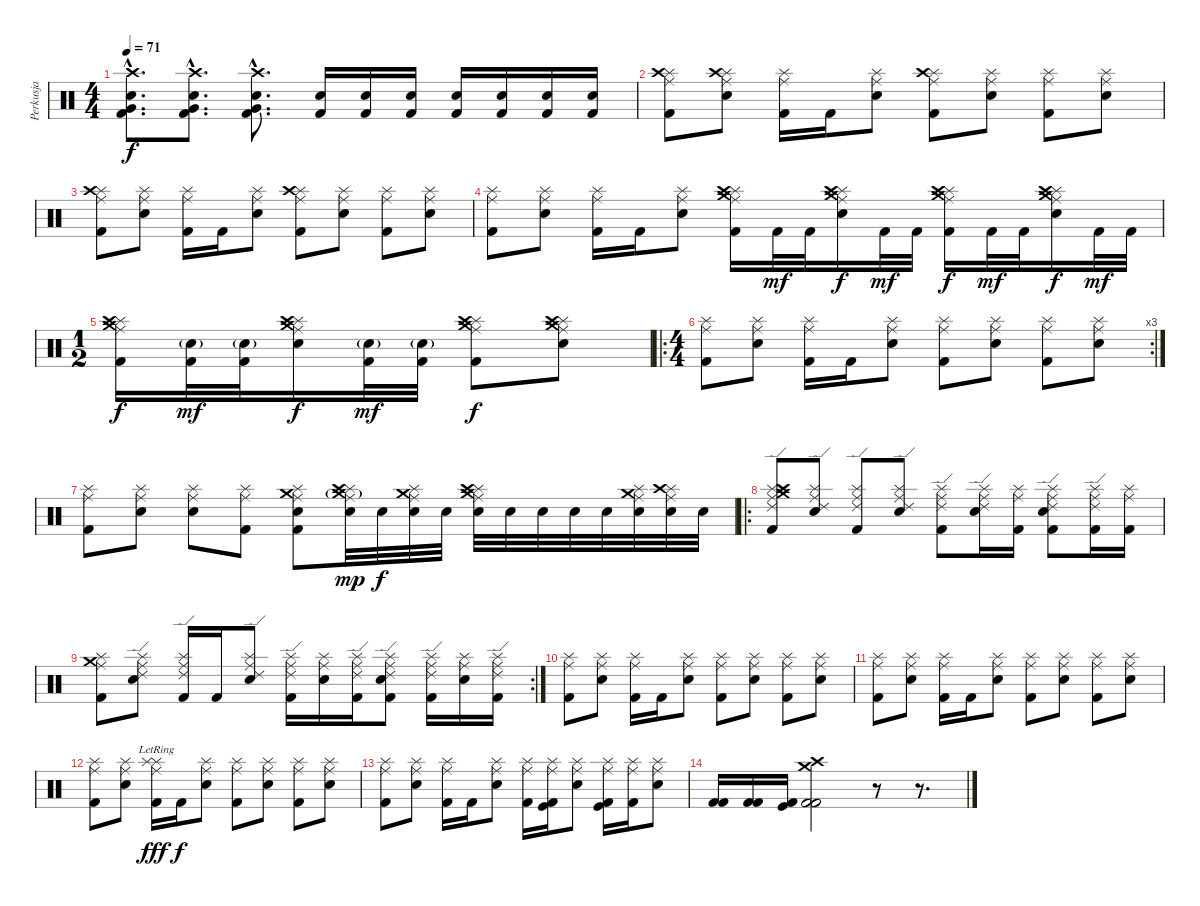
\track ("Perkusja" "Perkusja") {instrument percussion}
\staff {score}
\articulation defaults
\ts (4 4)
\tempo 71
\clef neutral
\ks c
("Electric Snare (hit)"{hac} "Kick (hit) 2"{hac} "Very Low Tom (hit)"{hac} "Crash high (hit)"{hac}).8{d dy f} ("Electric Snare (hit)"{hac} "Kick (hit) 2"{hac} "Very Low Tom (hit)"{hac} "Crash high (hit)"{hac}).8{d} ("Electric Snare (hit)"{hac} "Kick (hit) 2"{hac} "Very Low Tom (hit)"{hac} "Crash high (hit)"{hac}).8{d} ("Kick (hit) 2" "Electric Snare (hit)").16 ("Kick (hit) 2" "Electric Snare (hit)").16 ("Kick (hit) 2" "Electric Snare (hit)").16 ("Kick (hit) 2" "Electric Snare (hit)").16 ("Kick (hit) 2" "Electric Snare (hit)").16 ("Kick (hit) 2" "Electric Snare (hit)").16 ("Kick (hit) 2" "Electric Snare (hit)").16 |
("Ride (middle)" "Splash (hit)" "Crash high (hit)" "Kick (hit) 2").8 ("Ride (middle)" "Splash (hit)" "Crash high (hit)" "Electric Snare (hit)").8 ("Ride (middle)" "Splash (hit)" "Kick (hit) 2").16 "Kick (hit) 2".16 ("Ride (middle)" "Splash (hit)" "Electric Snare (hit)").8 ("Ride (middle)" "Splash (hit)" "Crash high (hit)" "Kick (hit) 2").8 ("Ride (middle)" "Splash (hit)" "Electric Snare (hit)").8 ("Ride (middle)" "Splash (hit)" "Kick (hit) 2").8 ("Ride (middle)" "Splash (hit)" "Electric Snare (hit)").8 |
("Ride (middle)" "Splash (hit)" "Crash high (hit)" "Kick (hit) 2").8 ("Ride (middle)" "Splash (hit)" "Electric Snare (hit)").8 ("Ride (middle)" "Splash (hit)" "Kick (hit) 2").16 "Kick (hit) 2".16 ("Ride (middle)" "Splash (hit)" "Electric Snare (hit)").8 ("Ride (middle)" "Splash (hit)" "Crash high (hit)" "Kick (hit) 2").8 ("Ride (middle)" "Splash (hit)" "Electric Snare (hit)").8 ("Ride (middle)" "Splash (hit)" "Kick (hit) 2").8 ("Ride (middle)" "Splash (hit)" "Electric Snare (hit)").8 |
("Ride (middle)" "Splash (hit)" "Kick (hit) 2").8 ("Ride (middle)" "Splash (hit)" "Electric Snare (hit)").8 ("Ride (middle)" "Splash (hit)" "Kick (hit) 2").16 "Kick (hit) 2".16 ("Ride (middle)" "Splash (hit)" "Electric Snare (hit)").8 ("Ride (middle)" "Splash (hit)" "Crash medium (hit)" "Crash high (hit)" "Kick (hit) 2").16 "Kick (hit) 2".32{dy mf} "Kick (hit) 2".32 ("Ride (middle)" "Splash (hit)" "Crash medium (hit)" "Crash high (hit)" "Electric Snare (hit)").16{dy f} "Kick (hit) 2".32{dy mf} "Kick (hit) 2".32 ("Ride (middle)" "Splash (hit)" "Crash medium (hit)" "Crash high (hit)" "Kick (hit) 2").16{dy f} "Kick (hit) 2".32{dy mf} "Kick (hit) 2".32 ("Ride (middle)" "Splash (hit)" "Crash medium (hit)" "Crash high (hit)" "Electric Snare (hit)").16{dy f} "Kick (hit) 2".32{dy mf} "Kick (hit) 2".32 |
\ts (1 2)
("Ride (middle)" "Splash (hit)" "Crash medium (hit)" "Crash high (hit)" "Kick (hit) 2").16{dy f} ("Electric Snare (hit)"{g} "Kick (hit) 2").32{dy mf} ("Electric Snare (hit)"{g} "Kick (hit) 2").32 ("Ride (middle)" "Splash (hit)" "Crash medium (hit)" "Crash high (hit)" "Electric Snare (hit)").16{dy f} ("Electric Snare (hit)"{g} "Kick (hit) 2").32{dy mf} ("Electric Snare (hit)"{g} "Kick (hit) 2").32 ("Ride (middle)" "Splash (hit)" "Crash medium (hit)" "Crash high (hit)" "Kick (hit) 2").8{dy f} ("Ride (middle)" "Splash (hit)" "Crash medium (hit)" "Crash high (hit)" "Electric Snare (hit)").8 |
\ro
\rc 3
\ts (4 4)
("Ride (middle)" "Splash (hit)" "Kick (hit) 2").8 ("Ride (middle)" "Splash (hit)" "Electric Snare (hit)").8 ("Ride (middle)" "Splash (hit)" "Kick (hit) 2").16 "Kick (hit) 2".16 ("Ride (middle)" "Splash (hit)" "Electric Snare (hit)").8 ("Ride (middle)" "Splash (hit)" "Kick (hit) 2").8 ("Ride (middle)" "Splash (hit)" "Electric Snare (hit)").8 ("Ride (middle)" "Splash (hit)" "Kick (hit) 2").8 ("Ride (middle)" "Splash (hit)" "Electric Snare (hit)").8 |
("Ride (middle)" "Splash (hit)" "Kick (hit) 2").8 ("Ride (middle)" "Splash (hit)" "Electric Snare (hit)").8 ("Ride (middle)" "Splash (hit)" "Electric Snare (hit)").8 ("Ride (middle)" "Splash (hit)" "Kick (hit) 2").8 ("Ride (middle)" "Splash (hit)" "Crash medium (hit)" "Electric Snare (hit)" "Kick (hit) 2").8 ("Ride (middle)" "Splash (hit)" "Crash medium (hit)"{g} "Crash high (hit)" "Electric Snare (hit)").32{dy mp} "Electric Snare (hit)".32{dy f} ("Ride (middle)" "Splash (hit)" "Crash medium (hit)" "Electric Snare (hit)").32 "Electric Snare (hit)".32 ("Ride (middle)" "Splash (hit)" "Crash medium (hit)" "Crash high (hit)" "Electric Snare (hit)").32 "Electric Snare (hit)".32 "Electric Snare (hit)".32 "Electric Snare (hit)".32 "Electric Snare (hit)".32 ("Ride (middle)" "Splash (hit)" "Crash medium (hit)" "Electric Snare (hit)").32 ("Ride (middle)" "Splash (hit)" "Crash high (hit)" "Electric Snare (hit)").32 "Electric Snare (hit)".32 |
\ro
("Ride (middle)" "Splash (hit)" "Ride (edge) 2" "Crash medium (hit)" "Kick (hit) 2" "Crash high (hit)").8 ("Ride (middle)" "Splash (hit)" "Ride (edge) 2" "Electric Snare (hit)").8 ("Ride (middle)" "Splash (hit)" "Ride (edge) 2" "Kick (hit) 2").8 ("Ride (middle)" "Splash (hit)" "Ride (edge) 2" "Electric Snare (hit)").8 ("Ride (middle)" "Splash (hit)" "Ride (edge) 2" "Kick (hit) 2").8 ("Ride (middle)" "Splash (hit)" "Ride (edge) 2" "Electric Snare (hit)").16 ("Ride (middle)" "Splash (hit)" "Kick (hit) 2").16 ("Ride (middle)" "Splash (hit)" "Ride (edge) 2" "Electric Snare (hit)" "Kick (hit) 2").8 ("Ride (middle)" "Splash (hit)" "Ride (edge) 2" "Kick (hit) 2").16 ("Ride (middle)" "Splash (hit)" "Kick (hit) 2").16 |
\rc 2
("Ride (middle)" "Splash (hit)" "Crash medium (hit)" "Kick (hit) 2").8 ("Ride (middle)" "Splash (hit)" "Ride (edge) 2" "Electric Snare (hit)").8 ("Ride (middle)" "Splash (hit)" "Ride (edge) 2" "Kick (hit) 2").16 "Kick (hit) 2".16 ("Ride (middle)" "Splash (hit)" "Ride (edge) 2" "Electric Snare (hit)").8 ("Ride (middle)" "Splash (hit)" "Ride (edge) 2" "Kick (hit) 2").16 ("Ride (middle)" "Splash (hit)" "Electric Snare (hit)").16 ("Ride (middle)" "Splash (hit)" "Ride (edge) 2" "Kick (hit) 2").16 ("Ride (middle)" "Splash (hit)" "Ride (edge) 2" "Electric Snare (hit)" "Kick (hit) 2").8 ("Ride (middle)" "Splash (hit)" "Ride (edge) 2" "Kick (hit) 2").16 ("Ride (middle)" "Splash (hit)" "Electric Snare (hit)").16 ("Ride (middle)" "Splash (hit)" "Ride (edge) 2" "Kick (hit) 2").16 |
("Ride (middle)" "Splash (hit)" "Kick (hit) 2").8 ("Ride (middle)" "Splash (hit)" "Electric Snare (hit)").8 ("Ride (middle)" "Splash (hit)" "Kick (hit) 2").16 "Kick (hit) 2".16 ("Ride (middle)" "Splash (hit)" "Electric Snare (hit)").8 ("Ride (middle)" "Splash (hit)" "Kick (hit) 2").8 ("Ride (middle)" "Splash (hit)" "Electric Snare (hit)").8 ("Ride (middle)" "Splash (hit)" "Kick (hit) 2").8 ("Ride (middle)" "Splash (hit)" "Electric Snare (hit)").8 |
("Ride (middle)" "Splash (hit)" "Kick (hit) 2").8 ("Ride (middle)" "Splash (hit)" "Electric Snare (hit)").8 ("Ride (middle)" "Splash (hit)" "Kick (hit) 2").16 "Kick (hit) 2".16 ("Ride (middle)" "Splash (hit)" "Electric Snare (hit)").8 ("Ride (middle)" "Splash (hit)" "Kick (hit) 2").8 ("Ride (middle)" "Splash (hit)" "Electric Snare (hit)").8 ("Ride (middle)" "Splash (hit)" "Kick (hit) 2").8 ("Ride (middle)" "Splash (hit)" "Electric Snare (hit)").8 |
("Ride (middle)" "Splash (hit)" "Kick (hit) 2").8 ("Ride (middle)" "Splash (hit)" "Electric Snare (hit)").8 ("Ride (middle)" "Splash (hit)" "Splash (hit)"{lr} "Kick (hit) 2").16{dy fff} "Kick (hit) 2".16{dy f} ("Ride (middle)" "Splash (hit)" "Electric Snare (hit)").8 ("Ride (middle)" "Splash (hit)" "Kick (hit) 2").8 ("Ride (middle)" "Splash (hit)" "Electric Snare (hit)").8 ("Ride (middle)" "Splash (hit)" "Kick (hit) 2").8 ("Ride (middle)" "Splash (hit)" "Electric Snare (hit)").8 |
("Ride (middle)" "Splash (hit)" "Kick (hit) 2").8 ("Ride (middle)" "Splash (hit)" "Electric Snare (hit)").8 ("Ride (middle)" "Splash (hit)" "Kick (hit) 2").16 "Kick (hit) 2".16 ("Ride (middle)" "Splash (hit)" "Electric Snare (hit)").8 ("Ride (middle)" "Splash (hit)" "Kick (hit) 2").16 ("Ride (middle)" "Splash (hit)" "Kick (hit)" "Kick (hit) 2").16 ("Ride (middle)" "Splash (hit)" "Electric Snare (hit)").8 ("Ride (middle)" "Splash (hit)" "Kick (hit)" "Kick (hit) 2").16 ("Ride (middle)" "Splash (hit)" "Kick (hit) 2").16 ("Ride (middle)" "Splash (hit)" "Electric Snare (hit)").8 |
("Kick (hit) 2" "Kick (hit) 2").16 ("Kick (hit) 2" "Kick (hit) 2").16 ("Kick (hit) 2" "Kick (hit)").16 ("Crash medium (hit)" "Crash high (hit)" "Kick (hit) 2" "Kick (hit) 2").2 r.8 r.8{d}
